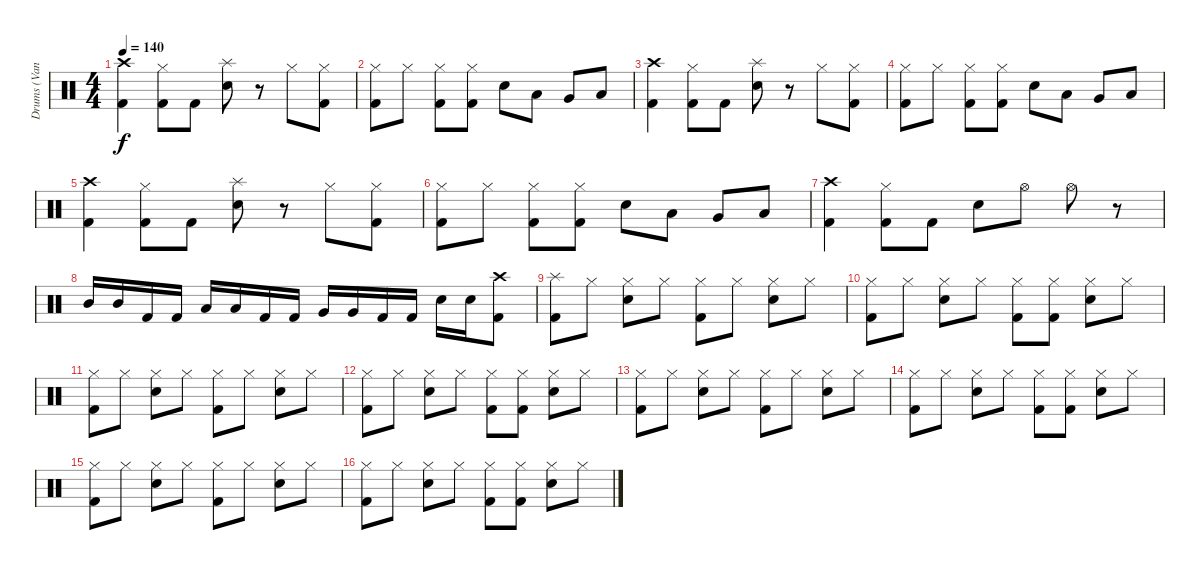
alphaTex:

\track ("Drums (Vandel)" "Drums (Van") {instrument percussion}
\staff {score}
\articulation defaults
\ts (4 4)
\tempo 140
\clef neutral
\ks c
("Crash high (hit)" "Kick (hit) 2").4{dy f} ("Hi-Hat (closed)" "Kick (hit) 2").8 "Kick (hit) 2".8 ("Splash (hit)" "Snare (hit) 2").8 r.8 "Hi-Hat (closed)".8 ("Hi-Hat (closed)" "Kick (hit) 2").8 |
("Hi-Hat (closed)" "Kick (hit) 2").8 "Hi-Hat (closed)".8 ("Hi-Hat (closed)" "Kick (hit) 2").8 ("Hi-Hat (closed)" "Kick (hit) 2").8 "Snare (hit) 2".8 "Low Tom (hit)".8 "Very Low Tom (hit)".8 "Low Floor Tom (hit)".8 |
("Crash high (hit)" "Kick (hit) 2").4 ("Hi-Hat (closed)" "Kick (hit) 2").8 "Kick (hit) 2".8 ("Splash (hit)" "Snare (hit) 2").8 r.8 "Hi-Hat (closed)".8 ("Hi-Hat (closed)" "Kick (hit) 2").8 |
("Hi-Hat (closed)" "Kick (hit) 2").8 "Hi-Hat (closed)".8 ("Hi-Hat (closed)" "Kick (hit) 2").8 ("Hi-Hat (closed)" "Kick (hit) 2").8 "Snare (hit) 2".8 "Low Tom (hit)".8 "Very Low Tom (hit)".8 "Low Floor Tom (hit)".8 |
("Crash high (hit)" "Kick (hit) 2").4 ("Hi-Hat (closed)" "Kick (hit) 2").8 "Kick (hit) 2".8 ("Splash (hit)" "Snare (hit) 2").8 r.8 "Hi-Hat (closed)".8 ("Hi-Hat (closed)" "Kick (hit) 2").8 |
("Hi-Hat (closed)" "Kick (hit) 2").8 "Hi-Hat (closed)".8 ("Hi-Hat (closed)" "Kick (hit) 2").8 ("Hi-Hat (closed)" "Kick (hit) 2").8 "Snare (hit) 2".8 "Low Tom (hit)".8 "Very Low Tom (hit)".8 "Low Floor Tom (hit)".8 |
("Crash high (hit)" "Kick (hit) 2").4 ("Hi-Hat (closed)" "Kick (hit) 2").8 "Kick (hit) 2".8 "Snare (hit) 2".8 "Hi-Hat (open)".8 "Hi-Hat (open)".8 r.8 |
"Mid Tom (hit)".16 "Mid Tom (hit)".16 "Kick (hit) 2".16 "Kick (hit) 2".16 "Low Tom (hit)".16 "Low Tom (hit)".16 "Kick (hit) 2".16 "Kick (hit) 2".16 "Very Low Tom (hit)".16 "Very Low Tom (hit)".16 "Kick (hit) 2".16 "Kick (hit) 2".16 "Snare (hit) 2".16 "Snare (hit) 2".16 ("Crash high (hit)" "Kick (hit) 2").8 |
("Splash (hit)" "Kick (hit) 2").8 "Hi-Hat (closed)".8 ("Hi-Hat (closed)" "Snare (hit) 2").8 "Hi-Hat (closed)".8 ("Hi-Hat (closed)" "Kick (hit) 2").8 "Hi-Hat (closed)".8 ("Hi-Hat (closed)" "Snare (hit) 2").8 "Hi-Hat (closed)".8 |
("Hi-Hat (closed)" "Kick (hit) 2").8 "Hi-Hat (closed)".8 ("Hi-Hat (closed)" "Snare (hit) 2").8 "Hi-Hat (closed)".8 ("Hi-Hat (closed)" "Kick (hit) 2").8 ("Hi-Hat (closed)" "Kick (hit) 2").8 ("Hi-Hat (closed)" "Snare (hit) 2").8 "Hi-Hat (closed)".8 |
("Hi-Hat (closed)" "Kick (hit) 2").8 "Hi-Hat (closed)".8 ("Hi-Hat (closed)" "Snare (hit) 2").8 "Hi-Hat (closed)".8 ("Hi-Hat (closed)" "Kick (hit) 2").8 "Hi-Hat (closed)".8 ("Hi-Hat (closed)" "Snare (hit) 2").8 "Hi-Hat (closed)".8 |
("Hi-Hat (closed)" "Kick (hit) 2").8 "Hi-Hat (closed)".8 ("Hi-Hat (closed)" "Snare (hit) 2").8 "Hi-Hat (closed)".8 ("Hi-Hat (closed)" "Kick (hit) 2").8 ("Hi-Hat (closed)" "Kick (hit) 2").8 ("Hi-Hat (closed)" "Snare (hit) 2").8 "Hi-Hat (closed)".8 |
("Hi-Hat (closed)" "Kick (hit) 2").8 "Hi-Hat (closed)".8 ("Hi-Hat (closed)" "Snare (hit) 2").8 "Hi-Hat (closed)".8 ("Hi-Hat (closed)" "Kick (hit) 2").8 "Hi-Hat (closed)".8 ("Hi-Hat (closed)" "Snare (hit) 2").8 "Hi-Hat (closed)".8 |
("Hi-Hat (closed)" "Kick (hit) 2").8 "Hi-Hat (closed)".8 ("Hi-Hat (closed)" "Snare (hit) 2").8 "Hi-Hat (closed)".8 ("Hi-Hat (closed)" "Kick (hit) 2").8 ("Hi-Hat (closed)" "Kick (hit) 2").8 ("Hi-Hat (closed)" "Snare (hit) 2").8 "Hi-Hat (closed)".8 |
("Hi-Hat (closed)" "Kick (hit) 2").8 "Hi-Hat (closed)".8 ("Hi-Hat (closed)" "Snare (hit) 2").8 "Hi-Hat (closed)".8 ("Hi-Hat (closed)" "Kick (hit) 2").8 "Hi-Hat (closed)".8 ("Hi-Hat (closed)" "Snare (hit) 2").8 "Hi-Hat (closed)".8 |
("Hi-Hat (closed)" "Kick (hit) 2").8 "Hi-Hat (closed)".8 ("Hi-Hat (closed)" "Snare (hit) 2").8 "Hi-Hat (closed)".8 ("Hi-Hat (closed)" "Kick (hit) 2").8 ("Hi-Hat (closed)" "Kick (hit) 2").8 ("Hi-Hat (closed)" "Snare (hit) 2").8 "Hi-Hat (closed)".8
